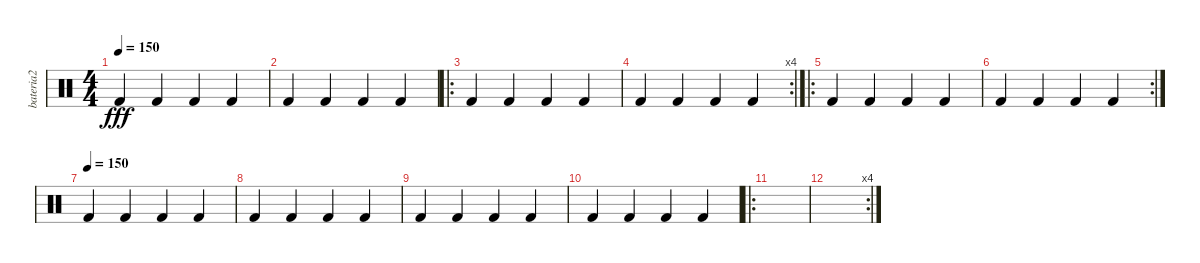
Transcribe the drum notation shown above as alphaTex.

\track ("bateria2" "bateria2") {instrument percussion}
\staff {score}
\articulation defaults
\ts (4 4)
\tempo 150
\clef neutral
\ks c "Kick (hit) 2".4{dy fff} "Kick (hit) 2".4 "Kick (hit) 2".4 "Kick (hit) 2".4
|
"Kick (hit) 2".4 "Kick (hit) 2".4 "Kick (hit) 2".4 "Kick (hit) 2".4 |
\ro "Kick (hit) 2".4 "Kick (hit) 2".4 "Kick (hit) 2".4 "Kick (hit) 2".4
|
\rc 4 "Kick (hit) 2".4 "Kick (hit) 2".4 "Kick (hit) 2".4 "Kick (hit) 2".4
|
\ro "Kick (hit) 2".4 "Kick (hit) 2".4 "Kick (hit) 2".4 "Kick (hit) 2".4
|
\rc 2 "Kick (hit) 2".4 "Kick (hit) 2".4 "Kick (hit) 2".4 "Kick (hit) 2".4
|
\tempo (150)
"Kick (hit) 2".4 "Kick (hit) 2".4 "Kick (hit) 2".4 "Kick (hit) 2".4 |
"Kick (hit) 2".4 "Kick (hit) 2".4 "Kick (hit) 2".4 "Kick (hit) 2".4 |
"Kick (hit) 2".4 "Kick (hit) 2".4 "Kick (hit) 2".4 "Kick (hit) 2".4 |
"Kick (hit) 2".4 "Kick (hit) 2".4 "Kick (hit) 2".4 "Kick (hit) 2".4 |
\ro
|
\rc 4
